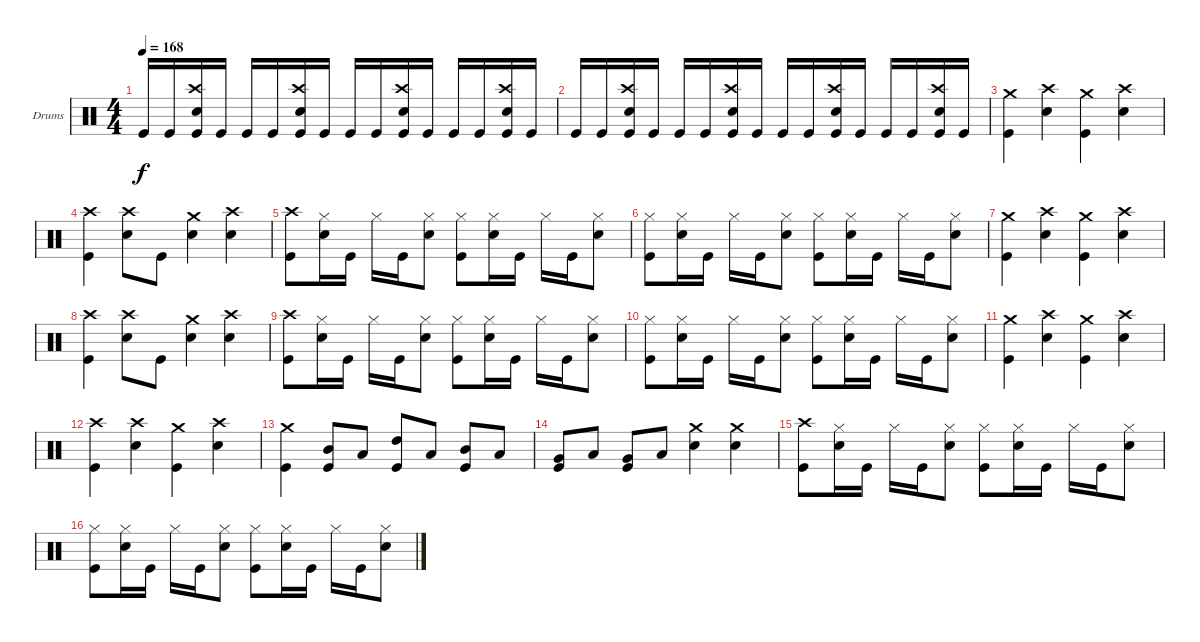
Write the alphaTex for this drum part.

\bracketExtendMode groupsimilarinstruments
\firstSystemTrackNameOrientation horizontal
\otherSystemsTrackNameOrientation horizontal
\track ("Drumkit" "Drums") {instrument percussion}
\staff {score}
\articulation defaults
\ts (4 4)
\tempo 168
\clef neutral
\ks c "Kick (hit)".16{dy f} "Kick (hit)".16
("Crash high (hit)" "Snare (hit) 2" "Kick (hit)").16 "Kick (hit)".16 "Kick (hit)".16 "Kick (hit)".16 ("Crash high (hit)" "Snare (hit) 2" "Kick (hit)").16 "Kick (hit)".16 "Kick (hit)".16 "Kick (hit)".16 ("Crash high (hit)" "Snare (hit) 2" "Kick (hit)").16 "Kick (hit)".16 "Kick (hit)".16 "Kick (hit)".16 ("Crash high (hit)" "Snare (hit) 2" "Kick (hit)").16 "Kick (hit)".16 |
"Kick (hit)".16 "Kick (hit)".16 ("Crash high (hit)" "Snare (hit) 2" "Kick (hit)").16 "Kick (hit)".16 "Kick (hit)".16 "Kick (hit)".16 ("Crash high (hit)" "Snare (hit) 2" "Kick (hit)").16 "Kick (hit)".16 "Kick (hit)".16 "Kick (hit)".16 ("Crash high (hit)" "Snare (hit) 2" "Kick (hit)").16 "Kick (hit)".16 "Kick (hit)".16 "Kick (hit)".16 ("Crash high (hit)" "Snare (hit) 2" "Kick (hit)").16 "Kick (hit)".16 |
("Crash medium (hit)" "Kick (hit)").4 ("Crash high (hit)" "Snare (hit) 2").4 ("Crash medium (hit)" "Kick (hit)").4 ("Crash high (hit)" "Snare (hit) 2").4 |
("Crash high (hit)" "Kick (hit)").4 ("Crash high (hit)" "Snare (hit) 2").8 "Kick (hit)".8 ("Crash medium (hit)" "Snare (hit) 2").4 ("Crash high (hit)" "Snare (hit) 2").4 |
("Crash high (hit)" "Kick (hit)").8 ("Hi-Hat (closed)" "Snare (hit) 2").16 "Kick (hit)".16 "Hi-Hat (closed)".16 "Kick (hit)".16 ("Hi-Hat (closed)" "Snare (hit) 2").8 ("Hi-Hat (closed)" "Kick (hit)").8 ("Hi-Hat (closed)" "Snare (hit) 2").16 "Kick (hit)".16 "Hi-Hat (closed)".16 "Kick (hit)".16 ("Hi-Hat (closed)" "Snare (hit) 2").8 |
("Hi-Hat (closed)" "Kick (hit)").8 ("Hi-Hat (closed)" "Snare (hit) 2").16 "Kick (hit)".16 "Hi-Hat (closed)".16 "Kick (hit)".16 ("Hi-Hat (closed)" "Snare (hit) 2").8 ("Hi-Hat (closed)" "Kick (hit)").8 ("Hi-Hat (closed)" "Snare (hit) 2").16 "Kick (hit)".16 "Hi-Hat (closed)".16 "Kick (hit)".16 ("Hi-Hat (closed)" "Snare (hit) 2").8 |
("Crash medium (hit)" "Kick (hit)").4 ("Crash high (hit)" "Snare (hit) 2").4 ("Crash medium (hit)" "Kick (hit)").4 ("Crash high (hit)" "Snare (hit) 2").4 |
("Crash high (hit)" "Kick (hit)").4 ("Crash high (hit)" "Snare (hit) 2").8 "Kick (hit)".8 ("Crash medium (hit)" "Snare (hit) 2").4 ("Crash high (hit)" "Snare (hit) 2").4 |
("Crash high (hit)" "Kick (hit)").8 ("Hi-Hat (closed)" "Snare (hit) 2").16 "Kick (hit)".16 "Hi-Hat (closed)".16 "Kick (hit)".16 ("Hi-Hat (closed)" "Snare (hit) 2").8 ("Hi-Hat (closed)" "Kick (hit)").8 ("Hi-Hat (closed)" "Snare (hit) 2").16 "Kick (hit)".16 "Hi-Hat (closed)".16 "Kick (hit)".16 ("Hi-Hat (closed)" "Snare (hit) 2").8 |
("Hi-Hat (closed)" "Kick (hit)").8 ("Hi-Hat (closed)" "Snare (hit) 2").16 "Kick (hit)".16 "Hi-Hat (closed)".16 "Kick (hit)".16 ("Hi-Hat (closed)" "Snare (hit) 2").8 ("Hi-Hat (closed)" "Kick (hit)").8 ("Hi-Hat (closed)" "Snare (hit) 2").16 "Kick (hit)".16 "Hi-Hat (closed)".16 "Kick (hit)".16 ("Hi-Hat (closed)" "Snare (hit) 2").8 |
("Crash medium (hit)" "Kick (hit)").4 ("Crash high (hit)" "Snare (hit) 2").4 ("Crash medium (hit)" "Kick (hit)").4 ("Crash high (hit)" "Snare (hit) 2").4 |
("Crash high (hit)" "Kick (hit)").4 ("Crash high (hit)" "Snare (hit) 2").4 ("Crash medium (hit)" "Kick (hit)").4 ("Crash high (hit)" "Snare (hit) 2").4 |
("Crash medium (hit)" "Kick (hit)").4 ("Mid Tom (hit)" "Kick (hit)").8 "Low Tom (hit)".8 ("High Tom (hit)" "Kick (hit)").8 "Low Tom (hit)".8 ("Mid Tom (hit)" "Kick (hit)").8 "Low Tom (hit)".8 |
("Very Low Tom (hit)" "Kick (hit)").8 "Low Tom (hit)".8 ("Very Low Tom (hit)" "Kick (hit)").8 "Low Tom (hit)".8 ("Crash medium (hit)" "Snare (hit) 2").4 ("Crash medium (hit)" "Snare (hit) 2").4 |
("Crash high (hit)" "Kick (hit)").8 ("Hi-Hat (closed)" "Snare (hit) 2").16 "Kick (hit)".16 "Hi-Hat (closed)".16 "Kick (hit)".16 ("Hi-Hat (closed)" "Snare (hit) 2").8 ("Hi-Hat (closed)" "Kick (hit)").8 ("Hi-Hat (closed)" "Snare (hit) 2").16 "Kick (hit)".16 "Hi-Hat (closed)".16 "Kick (hit)".16 ("Hi-Hat (closed)" "Snare (hit) 2").8 |
("Hi-Hat (closed)" "Kick (hit)").8 ("Hi-Hat (closed)" "Snare (hit) 2").16 "Kick (hit)".16 "Hi-Hat (closed)".16 "Kick (hit)".16 ("Hi-Hat (closed)" "Snare (hit) 2").8 ("Hi-Hat (closed)" "Kick (hit)").8 ("Hi-Hat (closed)" "Snare (hit) 2").16 "Kick (hit)".16 "Hi-Hat (closed)".16 "Kick (hit)".16 ("Hi-Hat (closed)" "Snare (hit) 2").8
